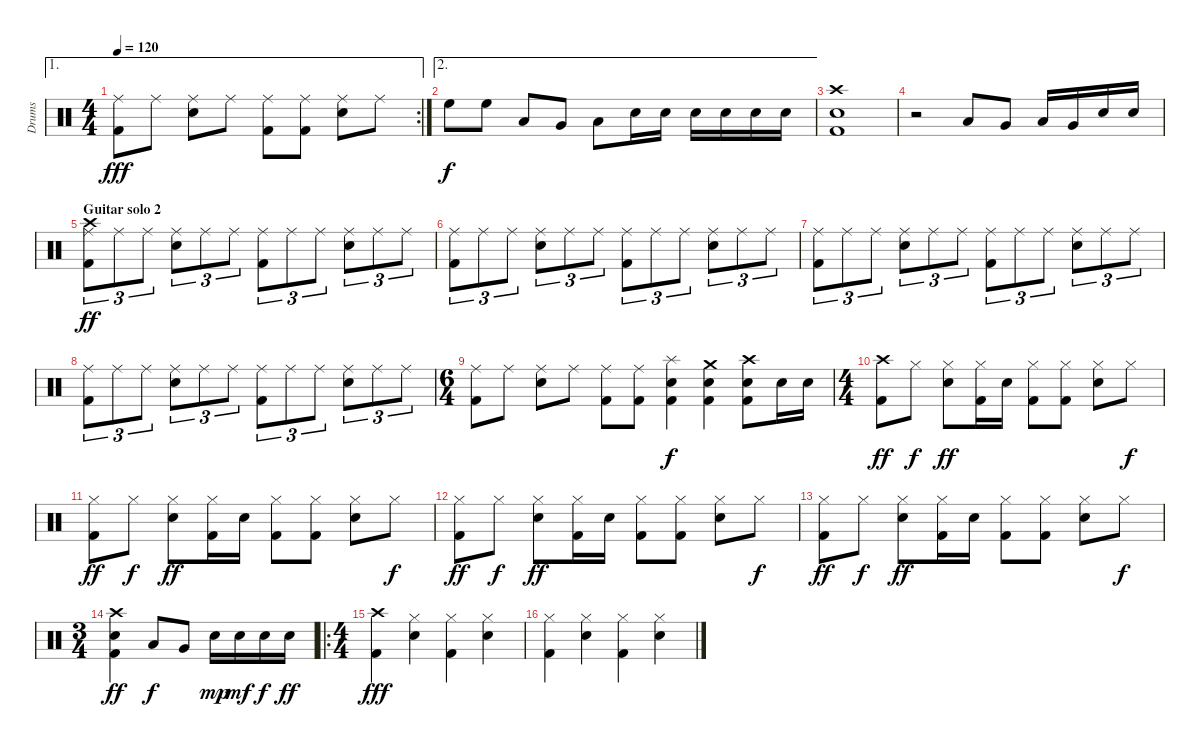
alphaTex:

\track ("Drums" "Drums") {instrument percussion}
\staff {score}
\articulation defaults
\ae 1
\rc 2
\ts (4 4)
\tempo 120
\clef neutral
\ks c
("Ride (middle)" "Kick (hit) 2").8{dy fff} "Ride (middle)".8 ("Ride (middle)" "Electric Snare (hit)").8 "Ride (middle)".8 ("Ride (middle)" "Kick (hit) 2").8 ("Ride (middle)" "Kick (hit) 2").8 ("Ride (middle)" "Electric Snare (hit)").8 "Ride (middle)".8 |
\ae 2 "High Floor Tom (hit)".8{dy f} "High Floor Tom (hit)".8 "Low Tom (hit)".8 "Very Low Tom (hit)".8 "Low Floor Tom (hit)".8 "Electric Snare (hit)".16 "Electric Snare (hit)".16 "Electric Snare (hit)".16 "Electric Snare (hit)".16 "Electric Snare (hit)".16 "Electric Snare (hit)".16
|
("Crash high (hit)" "Kick (hit) 2" "Electric Snare (hit)").1 |
r.2 "Low Floor Tom (hit)".8 "Very Low Tom (hit)".8 "Low Floor Tom (hit)".16 "Very Low Tom (hit)".16 "Electric Snare (hit)".16 "Electric Snare (hit)".16 |
\section ("" "Guitar solo 2")
("Ride (middle)" "Crash high (hit)" "Kick (hit) 2").8{tu (3 2) dy ff} "Ride (middle)".8{tu (3 2)} "Ride (middle)".8{tu (3 2)} ("Ride (middle)" "Electric Snare (hit)").8{tu (3 2)} "Ride (middle)".8{tu (3 2)} "Ride (middle)".8{tu (3 2)} ("Ride (middle)" "Kick (hit) 2").8{tu (3 2)} "Ride (middle)".8{tu (3 2)} "Ride (middle)".8{tu (3 2)} ("Ride (middle)" "Electric Snare (hit)").8{tu (3 2)} "Ride (middle)".8{tu (3 2)} "Ride (middle)".8{tu (3 2)} |
("Ride (middle)" "Kick (hit) 2").8{tu (3 2)} "Ride (middle)".8{tu (3 2)} "Ride (middle)".8{tu (3 2)} ("Ride (middle)" "Electric Snare (hit)").8{tu (3 2)} "Ride (middle)".8{tu (3 2)} "Ride (middle)".8{tu (3 2)} ("Ride (middle)" "Kick (hit) 2").8{tu (3 2)} "Ride (middle)".8{tu (3 2)} "Ride (middle)".8{tu (3 2)} ("Ride (middle)" "Electric Snare (hit)").8{tu (3 2)} "Ride (middle)".8{tu (3 2)} "Ride (middle)".8{tu (3 2)} |
("Ride (middle)" "Kick (hit) 2").8{tu (3 2)} "Ride (middle)".8{tu (3 2)} "Ride (middle)".8{tu (3 2)} ("Ride (middle)" "Electric Snare (hit)").8{tu (3 2)} "Ride (middle)".8{tu (3 2)} "Ride (middle)".8{tu (3 2)} ("Ride (middle)" "Kick (hit) 2").8{tu (3 2)} "Ride (middle)".8{tu (3 2)} "Ride (middle)".8{tu (3 2)} ("Ride (middle)" "Electric Snare (hit)").8{tu (3 2)} "Ride (middle)".8{tu (3 2)} "Ride (middle)".8{tu (3 2)} |
("Ride (middle)" "Kick (hit) 2").8{tu (3 2)} "Ride (middle)".8{tu (3 2)} "Ride (middle)".8{tu (3 2)} ("Ride (middle)" "Electric Snare (hit)").8{tu (3 2)} "Ride (middle)".8{tu (3 2)} "Ride (middle)".8{tu (3 2)} ("Ride (middle)" "Kick (hit) 2").8{tu (3 2)} "Ride (middle)".8{tu (3 2)} "Ride (middle)".8{tu (3 2)} ("Ride (middle)" "Electric Snare (hit)").8{tu (3 2)} "Ride (middle)".8{tu (3 2)} "Ride (middle)".8{tu (3 2)} |
\ts (6 4)
("Ride (middle)" "Kick (hit) 2").8 "Ride (middle)".8 ("Ride (middle)" "Electric Snare (hit)").8 "Ride (middle)".8 ("Ride (middle)" "Kick (hit) 2").8 ("Ride (middle)" "Kick (hit) 2").8 ("Splash (hit)" "Kick (hit) 2" "Electric Snare (hit)").4{dy f} ("Crash medium (hit)" "Kick (hit) 2" "Electric Snare (hit)").4 ("Crash high (hit)" "Kick (hit) 2" "Electric Snare (hit)").8 "Electric Snare (hit)".16 "Electric Snare (hit)".16 |
\ts (4 4)
("Crash high (hit)" "Kick (hit) 2").8{dy ff} "Hi-Hat (closed)".8{dy f} ("Hi-Hat (closed)" "Electric Snare (hit)").8{dy ff} ("Hi-Hat (closed)" "Kick (hit) 2").16 "Electric Snare (hit)".16 ("Hi-Hat (closed)" "Kick (hit) 2").8 ("Hi-Hat (closed)" "Kick (hit) 2").8 ("Hi-Hat (closed)" "Electric Snare (hit)").8 "Hi-Hat (closed)".8{dy f} |
("Hi-Hat (closed)" "Kick (hit) 2").8{dy ff} "Hi-Hat (closed)".8{dy f} ("Hi-Hat (closed)" "Electric Snare (hit)").8{dy ff} ("Hi-Hat (closed)" "Kick (hit) 2").16 "Electric Snare (hit)".16 ("Hi-Hat (closed)" "Kick (hit) 2").8 ("Hi-Hat (closed)" "Kick (hit) 2").8 ("Hi-Hat (closed)" "Electric Snare (hit)").8 "Hi-Hat (closed)".8{dy f} |
("Hi-Hat (closed)" "Kick (hit) 2").8{dy ff} "Hi-Hat (closed)".8{dy f} ("Hi-Hat (closed)" "Electric Snare (hit)").8{dy ff} ("Hi-Hat (closed)" "Kick (hit) 2").16 "Electric Snare (hit)".16 ("Hi-Hat (closed)" "Kick (hit) 2").8 ("Hi-Hat (closed)" "Kick (hit) 2").8 ("Hi-Hat (closed)" "Electric Snare (hit)").8 "Hi-Hat (closed)".8{dy f} |
("Hi-Hat (closed)" "Kick (hit) 2").8{dy ff} "Hi-Hat (closed)".8{dy f} ("Hi-Hat (closed)" "Electric Snare (hit)").8{dy ff} ("Hi-Hat (closed)" "Kick (hit) 2").16 "Electric Snare (hit)".16 ("Hi-Hat (closed)" "Kick (hit) 2").8 ("Hi-Hat (closed)" "Kick (hit) 2").8 ("Hi-Hat (closed)" "Electric Snare (hit)").8 "Hi-Hat (closed)".8{dy f} |
\ts (3 4)
("Crash high (hit)" "Kick (hit) 2" "Electric Snare (hit)").4{dy ff} "Low Floor Tom (hit)".8{dy f} "Very Low Tom (hit)".8 "Electric Snare (hit)".16{dy mp} "Electric Snare (hit)".16{dy mf} "Electric Snare (hit)".16{dy f} "Electric Snare (hit)".16{dy ff} |
\ro
\ts (4 4)
("Crash high (hit)" "Kick (hit) 2").4{dy fff} ("Hi-Hat (closed)" "Electric Snare (hit)").4 ("Hi-Hat (closed)" "Kick (hit) 2").4 ("Hi-Hat (closed)" "Electric Snare (hit)").4 |
("Hi-Hat (closed)" "Kick (hit) 2").4 ("Hi-Hat (closed)" "Electric Snare (hit)").4 ("Hi-Hat (closed)" "Kick (hit) 2").4 ("Hi-Hat (closed)" "Electric Snare (hit)").4
